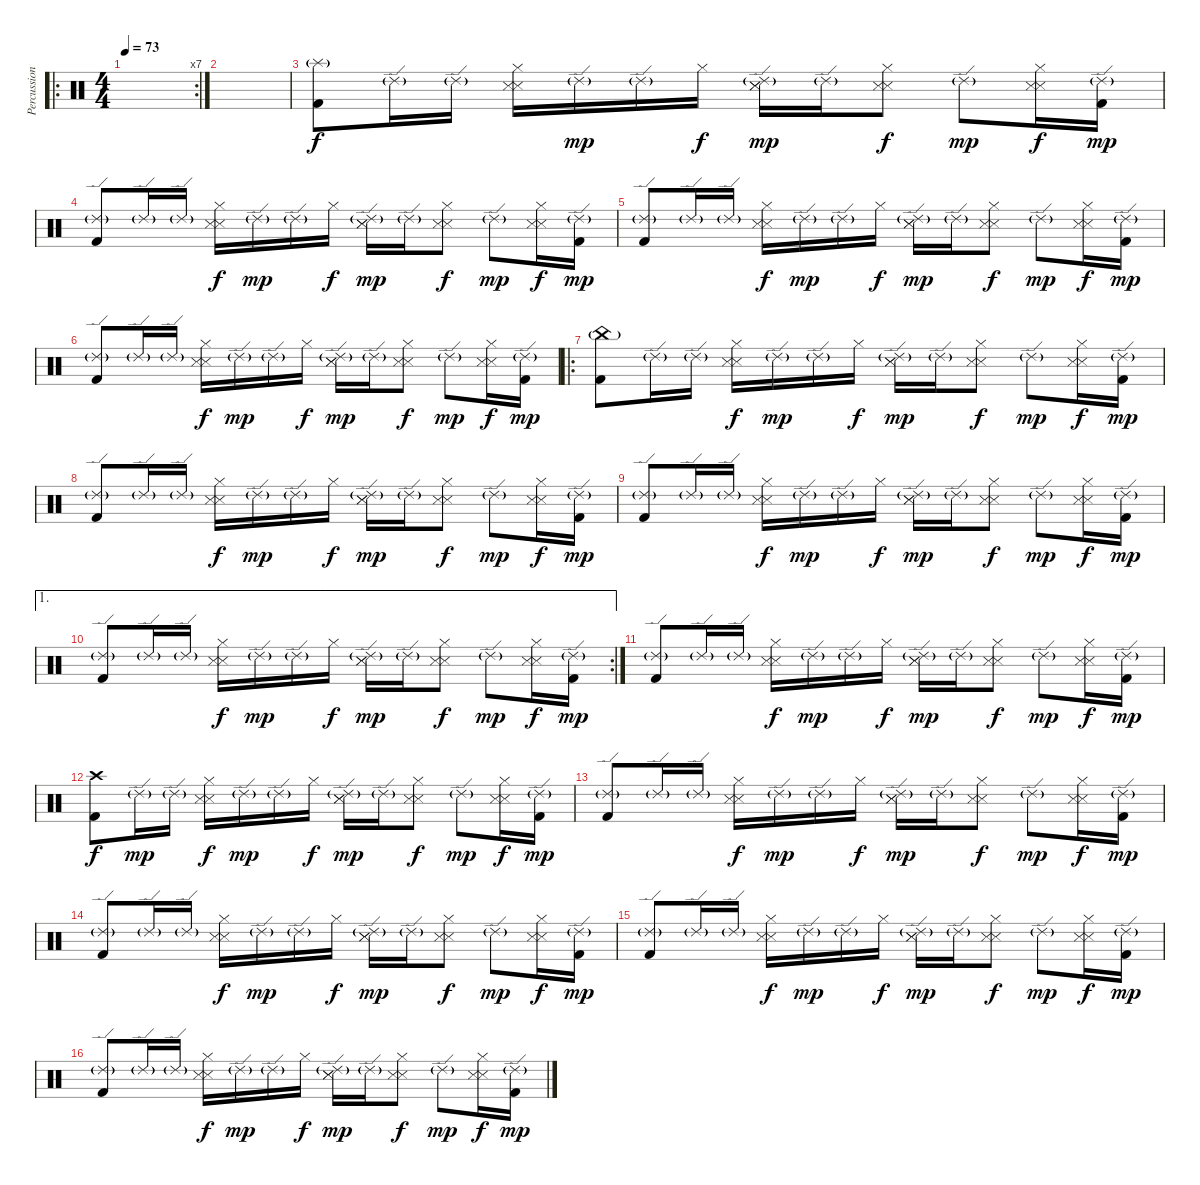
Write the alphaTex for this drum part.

\track ("Percussion" "Percussion") {instrument percussion}
\staff {score}
\articulation defaults
\ro
\rc 7
\ts (4 4)
\tempo 73
\clef neutral
\ks c
|
|
("Splash (hit)"{g} "Kick (hit) 2").8 "Ride (edge) 2"{g}.16 "Ride (edge) 2"{g}.16 ("Hi-Hat (closed)" "Metronome (hit)" "Metronome (hit)").16{dy f} "Ride (edge) 2"{g}.16{dy mp} "Ride (edge) 2"{g}.16 "Hi-Hat (closed)".16{dy f} ("Ride (edge) 2"{g} "Metronome (hit)" "Metronome (hit)").16{dy mp} "Ride (edge) 2"{g}.16 ("Hi-Hat (closed)" "Metronome (hit)" "Metronome (hit)").8{dy f} "Ride (edge) 2"{g}.8{dy mp} ("Hi-Hat (closed)" "Metronome (hit)" "Metronome (hit)").16{dy f} ("Ride (edge) 2"{g} "Kick (hit) 2").16{dy mp} |
("Ride (edge) 2"{g} "Kick (hit) 2").8 "Ride (edge) 2"{g}.16 "Ride (edge) 2"{g}.16 ("Hi-Hat (closed)" "Metronome (hit)" "Metronome (hit)").16{dy f} "Ride (edge) 2"{g}.16{dy mp} "Ride (edge) 2"{g}.16 "Hi-Hat (closed)".16{dy f} ("Ride (edge) 2"{g} "Metronome (hit)" "Metronome (hit)").16{dy mp} "Ride (edge) 2"{g}.16 ("Hi-Hat (closed)" "Metronome (hit)" "Metronome (hit)").8{dy f} "Ride (edge) 2"{g}.8{dy mp} ("Hi-Hat (closed)" "Metronome (hit)" "Metronome (hit)").16{dy f} ("Ride (edge) 2"{g} "Kick (hit) 2").16{dy mp} |
("Ride (edge) 2"{g} "Kick (hit) 2").8 "Ride (edge) 2"{g}.16 "Ride (edge) 2"{g}.16 ("Hi-Hat (closed)" "Metronome (hit)" "Metronome (hit)").16{dy f} "Ride (edge) 2"{g}.16{dy mp} "Ride (edge) 2"{g}.16 "Hi-Hat (closed)".16{dy f} ("Ride (edge) 2"{g} "Metronome (hit)" "Metronome (hit)").16{dy mp} "Ride (edge) 2"{g}.16 ("Hi-Hat (closed)" "Metronome (hit)" "Metronome (hit)").8{dy f} "Ride (edge) 2"{g}.8{dy mp} ("Hi-Hat (closed)" "Metronome (hit)" "Metronome (hit)").16{dy f} ("Ride (edge) 2"{g} "Kick (hit) 2").16{dy mp} |
("Ride (edge) 2"{g} "Kick (hit) 2").8 "Ride (edge) 2"{g}.16 "Ride (edge) 2"{g}.16 ("Hi-Hat (closed)" "Metronome (hit)" "Metronome (hit)").16{dy f} "Ride (edge) 2"{g}.16{dy mp} "Ride (edge) 2"{g}.16 "Hi-Hat (closed)".16{dy f} ("Ride (edge) 2"{g} "Metronome (hit)" "Metronome (hit)").16{dy mp} "Ride (edge) 2"{g}.16 ("Hi-Hat (closed)" "Metronome (hit)" "Metronome (hit)").8{dy f} "Ride (edge) 2"{g}.8{dy mp} ("Hi-Hat (closed)" "Metronome (hit)" "Metronome (hit)").16{dy f} ("Ride (edge) 2"{g} "Kick (hit) 2").16{dy mp} |
\ro
("China (hit)"{g} "Kick (hit) 2").8 "Ride (edge) 2"{g}.16 "Ride (edge) 2"{g}.16 ("Hi-Hat (closed)" "Metronome (hit)" "Metronome (hit)").16{dy f} "Ride (edge) 2"{g}.16{dy mp} "Ride (edge) 2"{g}.16 "Hi-Hat (closed)".16{dy f} ("Ride (edge) 2"{g} "Metronome (hit)" "Metronome (hit)").16{dy mp} "Ride (edge) 2"{g}.16 ("Hi-Hat (closed)" "Metronome (hit)" "Metronome (hit)").8{dy f} "Ride (edge) 2"{g}.8{dy mp} ("Hi-Hat (closed)" "Metronome (hit)" "Metronome (hit)").16{dy f} ("Ride (edge) 2"{g} "Kick (hit) 2").16{dy mp} |
("Ride (edge) 2"{g} "Kick (hit) 2").8 "Ride (edge) 2"{g}.16 "Ride (edge) 2"{g}.16 ("Hi-Hat (closed)" "Metronome (hit)" "Metronome (hit)").16{dy f} "Ride (edge) 2"{g}.16{dy mp} "Ride (edge) 2"{g}.16 "Hi-Hat (closed)".16{dy f} ("Ride (edge) 2"{g} "Metronome (hit)" "Metronome (hit)").16{dy mp} "Ride (edge) 2"{g}.16 ("Hi-Hat (closed)" "Metronome (hit)" "Metronome (hit)").8{dy f} "Ride (edge) 2"{g}.8{dy mp} ("Hi-Hat (closed)" "Metronome (hit)" "Metronome (hit)").16{dy f} ("Ride (edge) 2"{g} "Kick (hit) 2").16{dy mp} |
("Ride (edge) 2"{g} "Kick (hit) 2").8 "Ride (edge) 2"{g}.16 "Ride (edge) 2"{g}.16 ("Hi-Hat (closed)" "Metronome (hit)" "Metronome (hit)").16{dy f} "Ride (edge) 2"{g}.16{dy mp} "Ride (edge) 2"{g}.16 "Hi-Hat (closed)".16{dy f} ("Ride (edge) 2"{g} "Metronome (hit)" "Metronome (hit)").16{dy mp} "Ride (edge) 2"{g}.16 ("Hi-Hat (closed)" "Metronome (hit)" "Metronome (hit)").8{dy f} "Ride (edge) 2"{g}.8{dy mp} ("Hi-Hat (closed)" "Metronome (hit)" "Metronome (hit)").16{dy f} ("Ride (edge) 2"{g} "Kick (hit) 2").16{dy mp} |
\ae 1
\rc 2
("Ride (edge) 2"{g} "Kick (hit) 2").8 "Ride (edge) 2"{g}.16 "Ride (edge) 2"{g}.16 ("Hi-Hat (closed)" "Metronome (hit)" "Metronome (hit)").16{dy f} "Ride (edge) 2"{g}.16{dy mp} "Ride (edge) 2"{g}.16 "Hi-Hat (closed)".16{dy f} ("Ride (edge) 2"{g} "Metronome (hit)" "Metronome (hit)").16{dy mp} "Ride (edge) 2"{g}.16 ("Hi-Hat (closed)" "Metronome (hit)" "Metronome (hit)").8{dy f} "Ride (edge) 2"{g}.8{dy mp} ("Hi-Hat (closed)" "Metronome (hit)" "Metronome (hit)").16{dy f} ("Ride (edge) 2"{g} "Kick (hit) 2").16{dy mp} |
("Ride (edge) 2"{g} "Kick (hit) 2").8 "Ride (edge) 2"{g}.16 "Ride (edge) 2"{g}.16 ("Hi-Hat (closed)" "Metronome (hit)" "Metronome (hit)").16{dy f} "Ride (edge) 2"{g}.16{dy mp} "Ride (edge) 2"{g}.16 "Hi-Hat (closed)".16{dy f} ("Ride (edge) 2"{g} "Metronome (hit)" "Metronome (hit)").16{dy mp} "Ride (edge) 2"{g}.16 ("Hi-Hat (closed)" "Metronome (hit)" "Metronome (hit)").8{dy f} "Ride (edge) 2"{g}.8{dy mp} ("Hi-Hat (closed)" "Metronome (hit)" "Metronome (hit)").16{dy f} ("Ride (edge) 2"{g} "Kick (hit) 2").16{dy mp} |
("Crash high (hit)" "Kick (hit) 2").8{dy f} "Ride (edge) 2"{g}.16{dy mp} "Ride (edge) 2"{g}.16 ("Hi-Hat (closed)" "Metronome (hit)" "Metronome (hit)").16{dy f} "Ride (edge) 2"{g}.16{dy mp} "Ride (edge) 2"{g}.16 "Hi-Hat (closed)".16{dy f} ("Ride (edge) 2"{g} "Metronome (hit)" "Metronome (hit)").16{dy mp} "Ride (edge) 2"{g}.16 ("Hi-Hat (closed)" "Metronome (hit)" "Metronome (hit)").8{dy f} "Ride (edge) 2"{g}.8{dy mp} ("Hi-Hat (closed)" "Metronome (hit)" "Metronome (hit)").16{dy f} ("Ride (edge) 2"{g} "Kick (hit) 2").16{dy mp} |
("Ride (edge) 2"{g} "Kick (hit) 2").8 "Ride (edge) 2"{g}.16 "Ride (edge) 2"{g}.16 ("Hi-Hat (closed)" "Metronome (hit)" "Metronome (hit)").16{dy f} "Ride (edge) 2"{g}.16{dy mp} "Ride (edge) 2"{g}.16 "Hi-Hat (closed)".16{dy f} ("Ride (edge) 2"{g} "Metronome (hit)" "Metronome (hit)").16{dy mp} "Ride (edge) 2"{g}.16 ("Hi-Hat (closed)" "Metronome (hit)" "Metronome (hit)").8{dy f} "Ride (edge) 2"{g}.8{dy mp} ("Hi-Hat (closed)" "Metronome (hit)" "Metronome (hit)").16{dy f} ("Ride (edge) 2"{g} "Kick (hit) 2").16{dy mp} |
("Ride (edge) 2"{g} "Kick (hit) 2").8 "Ride (edge) 2"{g}.16 "Ride (edge) 2"{g}.16 ("Hi-Hat (closed)" "Metronome (hit)" "Metronome (hit)").16{dy f} "Ride (edge) 2"{g}.16{dy mp} "Ride (edge) 2"{g}.16 "Hi-Hat (closed)".16{dy f} ("Ride (edge) 2"{g} "Metronome (hit)" "Metronome (hit)").16{dy mp} "Ride (edge) 2"{g}.16 ("Hi-Hat (closed)" "Metronome (hit)" "Metronome (hit)").8{dy f} "Ride (edge) 2"{g}.8{dy mp} ("Hi-Hat (closed)" "Metronome (hit)" "Metronome (hit)").16{dy f} ("Ride (edge) 2"{g} "Kick (hit) 2").16{dy mp} |
("Ride (edge) 2"{g} "Kick (hit) 2").8 "Ride (edge) 2"{g}.16 "Ride (edge) 2"{g}.16 ("Hi-Hat (closed)" "Metronome (hit)" "Metronome (hit)").16{dy f} "Ride (edge) 2"{g}.16{dy mp} "Ride (edge) 2"{g}.16 "Hi-Hat (closed)".16{dy f} ("Ride (edge) 2"{g} "Metronome (hit)" "Metronome (hit)").16{dy mp} "Ride (edge) 2"{g}.16 ("Hi-Hat (closed)" "Metronome (hit)" "Metronome (hit)").8{dy f} "Ride (edge) 2"{g}.8{dy mp} ("Hi-Hat (closed)" "Metronome (hit)" "Metronome (hit)").16{dy f} ("Ride (edge) 2"{g} "Kick (hit) 2").16{dy mp} |
("Ride (edge) 2"{g} "Kick (hit) 2").8 "Ride (edge) 2"{g}.16 "Ride (edge) 2"{g}.16 ("Hi-Hat (closed)" "Metronome (hit)" "Metronome (hit)").16{dy f} "Ride (edge) 2"{g}.16{dy mp} "Ride (edge) 2"{g}.16 "Hi-Hat (closed)".16{dy f} ("Ride (edge) 2"{g} "Metronome (hit)" "Metronome (hit)").16{dy mp} "Ride (edge) 2"{g}.16 ("Hi-Hat (closed)" "Metronome (hit)" "Metronome (hit)").8{dy f} "Ride (edge) 2"{g}.8{dy mp} ("Hi-Hat (closed)" "Metronome (hit)" "Metronome (hit)").16{dy f} ("Ride (edge) 2"{g} "Kick (hit) 2").16{dy mp volume 7}
